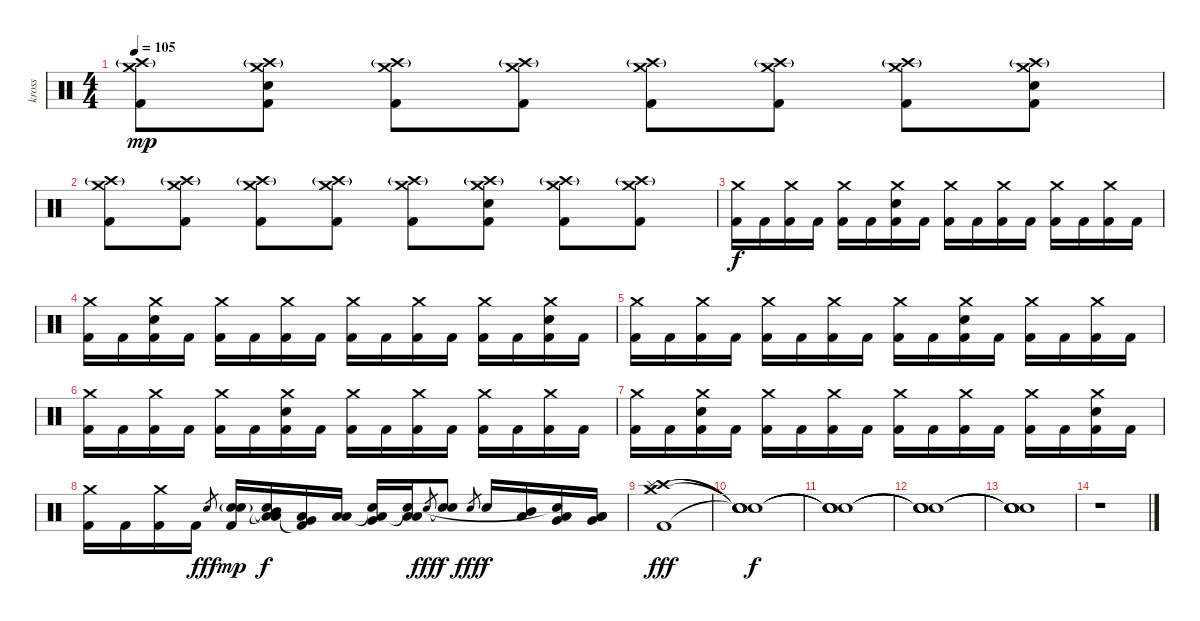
\track ("kross" "kross") {instrument percussion}
\staff {score}
\articulation defaults
\ts (4 4)
\tempo 105
\clef neutral
\ks c
("Crash medium (hit)" "Crash high (hit)"{g} "Kick (hit) 2").8{dy mp} ("Crash medium (hit)" "Crash high (hit)"{g} "Electric Snare (hit)" "Kick (hit) 2").8 ("Crash medium (hit)" "Crash high (hit)"{g} "Kick (hit) 2").8 ("Crash medium (hit)" "Crash high (hit)"{g} "Kick (hit) 2").8 ("Crash medium (hit)" "Crash high (hit)"{g} "Kick (hit) 2").8 ("Crash medium (hit)" "Crash high (hit)"{g} "Kick (hit) 2").8 ("Crash medium (hit)" "Crash high (hit)"{g} "Kick (hit) 2").8 ("Crash medium (hit)" "Crash high (hit)"{g} "Electric Snare (hit)" "Kick (hit) 2").8 |
("Crash medium (hit)" "Crash high (hit)"{g} "Kick (hit) 2").8 ("Crash medium (hit)" "Crash high (hit)"{g} "Kick (hit) 2").8 ("Crash medium (hit)" "Crash high (hit)"{g} "Kick (hit) 2").8 ("Crash medium (hit)" "Crash high (hit)"{g} "Kick (hit) 2").8 ("Crash medium (hit)" "Crash high (hit)"{g} "Kick (hit) 2").8 ("Crash medium (hit)" "Crash high (hit)"{g} "Electric Snare (hit)" "Kick (hit) 2").8 ("Crash medium (hit)" "Crash high (hit)"{g} "Kick (hit) 2").8 ("Crash medium (hit)" "Crash high (hit)"{g} "Kick (hit) 2").8 |
("Crash medium (hit)" "Kick (hit) 2").16{dy f} "Kick (hit) 2".16 ("Crash medium (hit)" "Kick (hit) 2").16 "Kick (hit) 2".16 ("Crash medium (hit)" "Kick (hit) 2").16 "Kick (hit) 2".16 ("Crash medium (hit)" "Electric Snare (hit)" "Kick (hit) 2").16 "Kick (hit) 2".16 ("Crash medium (hit)" "Kick (hit) 2").16 "Kick (hit) 2".16 ("Crash medium (hit)" "Kick (hit) 2").16 "Kick (hit) 2".16 ("Crash medium (hit)" "Kick (hit) 2").16 "Kick (hit) 2".16 ("Crash medium (hit)" "Kick (hit) 2").16 "Kick (hit) 2".16 |
("Crash medium (hit)" "Kick (hit) 2").16 "Kick (hit) 2".16 ("Crash medium (hit)" "Electric Snare (hit)" "Kick (hit) 2").16 "Kick (hit) 2".16 ("Crash medium (hit)" "Kick (hit) 2").16 "Kick (hit) 2".16 ("Crash medium (hit)" "Kick (hit) 2").16 "Kick (hit) 2".16 ("Crash medium (hit)" "Kick (hit) 2").16 "Kick (hit) 2".16 ("Crash medium (hit)" "Kick (hit) 2").16 "Kick (hit) 2".16 ("Crash medium (hit)" "Kick (hit) 2").16 "Kick (hit) 2".16 ("Crash medium (hit)" "Electric Snare (hit)" "Kick (hit) 2").16 "Kick (hit) 2".16 |
("Crash medium (hit)" "Kick (hit) 2").16 "Kick (hit) 2".16 ("Crash medium (hit)" "Kick (hit) 2").16 "Kick (hit) 2".16 ("Crash medium (hit)" "Kick (hit) 2").16 "Kick (hit) 2".16 ("Crash medium (hit)" "Kick (hit) 2").16 "Kick (hit) 2".16 ("Crash medium (hit)" "Kick (hit) 2").16 "Kick (hit) 2".16 ("Crash medium (hit)" "Electric Snare (hit)" "Kick (hit) 2").16 "Kick (hit) 2".16 ("Crash medium (hit)" "Kick (hit) 2").16 "Kick (hit) 2".16 ("Crash medium (hit)" "Kick (hit) 2").16 "Kick (hit) 2".16 |
("Crash medium (hit)" "Kick (hit) 2").16 "Kick (hit) 2".16 ("Crash medium (hit)" "Kick (hit) 2").16 "Kick (hit) 2".16 ("Crash medium (hit)" "Kick (hit) 2").16 "Kick (hit) 2".16 ("Crash medium (hit)" "Electric Snare (hit)" "Kick (hit) 2").16 "Kick (hit) 2".16 ("Crash medium (hit)" "Kick (hit) 2").16 "Kick (hit) 2".16 ("Crash medium (hit)" "Kick (hit) 2").16 "Kick (hit) 2".16 ("Crash medium (hit)" "Kick (hit) 2").16 "Kick (hit) 2".16 ("Crash medium (hit)" "Kick (hit) 2").16 "Kick (hit) 2".16 |
("Crash medium (hit)" "Kick (hit) 2").16 "Kick (hit) 2".16 ("Crash medium (hit)" "Electric Snare (hit)" "Kick (hit) 2").16 "Kick (hit) 2".16 ("Crash medium (hit)" "Kick (hit) 2").16 "Kick (hit) 2".16 ("Crash medium (hit)" "Kick (hit) 2").16 "Kick (hit) 2".16 ("Crash medium (hit)" "Kick (hit) 2").16 "Kick (hit) 2".16 ("Crash medium (hit)" "Kick (hit) 2").16 "Kick (hit) 2".16 ("Crash medium (hit)" "Kick (hit) 2").16 "Kick (hit) 2".16 ("Crash medium (hit)" "Electric Snare (hit)" "Kick (hit) 2").16 "Kick (hit) 2".16 |
("Crash medium (hit)" "Kick (hit) 2").16 "Kick (hit) 2".16 ("Crash medium (hit)" "Kick (hit) 2").16 "Kick (hit) 2".16 "Electric Snare (hit)".8{gr dy fff} ("Electric Snare (hit)" "Electric Snare (hit)"{g} "Kick (hit) 2").16{dy mp} ("Electric Snare (hit)"{t} "Low Tom (hit)"{t} "Mid Tom (hit)" "Low Tom (hit)").16{dy f} ("Low Floor Tom (hit)" "Very Low Tom (hit)" "Kick (hit) 2"{t}).16 ("Low Floor Tom (hit)" "Low Floor Tom (hit)").16 ("Electric Snare (hit)"{t} "Very Low Tom (hit)" "Low Floor Tom (hit)").16 ("Low Floor Tom (hit)" "Low Floor Tom (hit)" "Snare (hit)"{t}).16 "Electric Snare (hit)".8{gr dy fff} ("Electric Snare (hit)"{t} "Electric Snare (hit)").8{dy f} "Electric Snare (hit)".8{gr dy fff} "Electric Snare (hit)".16{dy f} ("Low Tom (hit)" "Mid Tom (hit)").16 ("Very Low Tom (hit)" "Low Tom (hit)" "Snare (hit)"{t}).16 ("Low Floor Tom (hit)" "Very Low Tom (hit)" "Low Floor Tom (hit)").16 |
("Crash medium (hit)" "Crash high (hit)" "Splash (hit)" "Kick (hit) 2").1{dy fff} |
("Snare (hit)"{t} "Snare (hit)"{t} "Snare (hit)"{t} "Snare (hit)"{t}).1{dy f} |
("Snare (hit)"{t} "Snare (hit)"{t} "Snare (hit)"{t} "Snare (hit)"{t}).1 |
("Snare (hit)"{t} "Snare (hit)"{t} "Snare (hit)"{t} "Snare (hit)"{t}).1 |
("Snare (hit)"{t} "Snare (hit)"{t} "Snare (hit)"{t} "Snare (hit)"{t}).1 |
r.1
